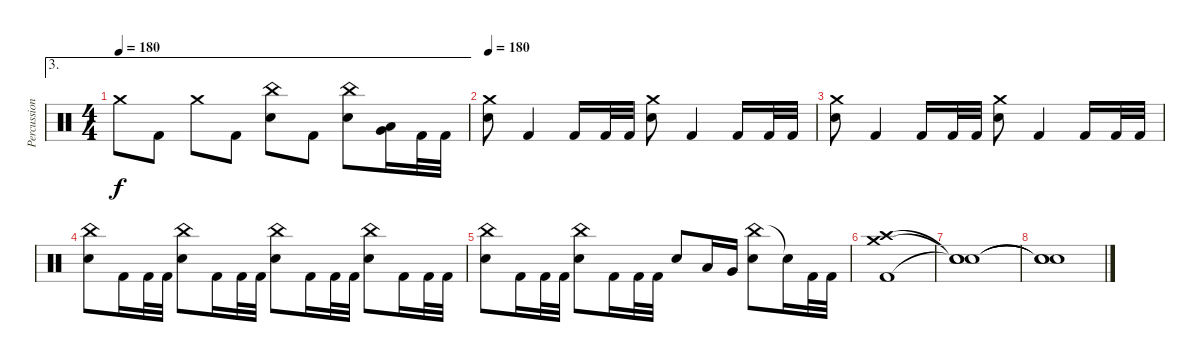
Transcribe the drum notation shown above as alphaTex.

\track ("Percussion" "Percussion") {instrument percussion}
\staff {score}
\articulation defaults
\ae 3
\ts (4 4)
\tempo 180
\clef neutral
\ks c "Crash medium (hit)".8{dy f} "Kick (hit) 2".8 "Crash medium (hit)".8 "Kick (hit) 2".8
("China (hit)" "Electric Snare (hit)").8 "Kick (hit) 2".8 ("China (hit)" "Electric Snare (hit)").8 ("Very Low Tom (hit)" "Low Tom (hit)").16 "Kick (hit) 2".32 "Kick (hit) 2".32 |
\tempo 180
("Crash medium (hit)" "Electric Snare (hit)").8 "Kick (hit) 2".4 "Kick (hit) 2".16 "Kick (hit) 2".32 "Kick (hit) 2".32 ("Crash medium (hit)" "Electric Snare (hit)").8 "Kick (hit) 2".4 "Kick (hit) 2".16 "Kick (hit) 2".32 "Kick (hit) 2".32 |
("Crash medium (hit)" "Electric Snare (hit)").8 "Kick (hit) 2".4 "Kick (hit) 2".16 "Kick (hit) 2".32 "Kick (hit) 2".32 ("Crash medium (hit)" "Electric Snare (hit)").8 "Kick (hit) 2".4 "Kick (hit) 2".16 "Kick (hit) 2".32 "Kick (hit) 2".32 |
("China (hit)" "Electric Snare (hit)").8 "Kick (hit) 2".16 "Kick (hit) 2".32 "Kick (hit) 2".32 ("China (hit)" "Electric Snare (hit)").8 "Kick (hit) 2".16 "Kick (hit) 2".32 "Kick (hit) 2".32 ("China (hit)" "Electric Snare (hit)").8 "Kick (hit) 2".16 "Kick (hit) 2".32 "Kick (hit) 2".32 ("China (hit)" "Electric Snare (hit)").8 "Kick (hit) 2".16 "Kick (hit) 2".32 "Kick (hit) 2".32 |
("China (hit)" "Electric Snare (hit)").8 "Kick (hit) 2".16 "Kick (hit) 2".32 "Kick (hit) 2".32 ("China (hit)" "Electric Snare (hit)").8 "Kick (hit) 2".16 "Kick (hit) 2".32 "Kick (hit) 2".32 "Electric Snare (hit)".8 "Low Tom (hit)".16 "Very Low Tom (hit)".16 ("China (hit)" "Electric Snare (hit)").8 "Electric Snare (hit)"{t}.16 "Kick (hit) 2".32 "Kick (hit) 2".32 |
("Crash medium (hit)" "Crash high (hit)" "Kick (hit) 2").1 |
("Snare (hit)"{t} "Snare (hit)"{t} "Snare (hit)"{t}).1 |
("Snare (hit)"{t} "Snare (hit)"{t} "Snare (hit)"{t}).1
